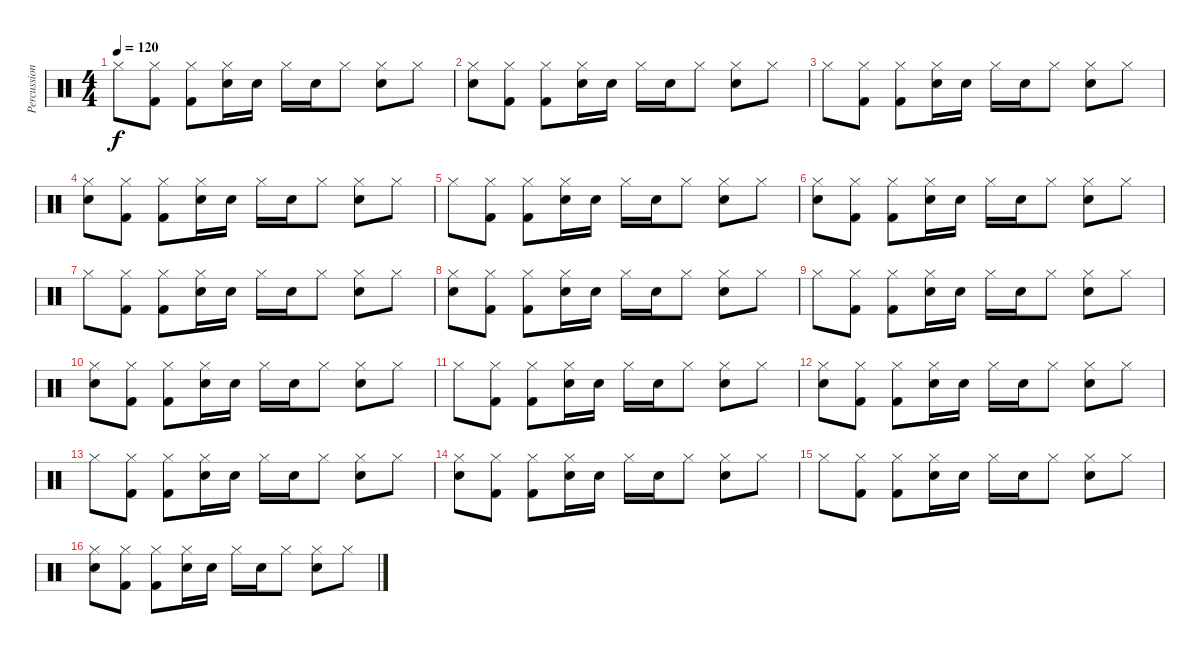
\track ("Percussion" "Percussion") {instrument percussion}
\staff {score}
\articulation defaults
\ts (4 4)
\tempo 120
\clef neutral
\ks c "Hi-Hat (closed)".8{dy f}
("Kick (hit) 2" "Hi-Hat (closed)").8 ("Kick (hit) 2" "Hi-Hat (closed)").8 ("Electric Snare (hit)" "Hi-Hat (closed)").16 "Electric Snare (hit)".16 "Hi-Hat (closed)".16 "Electric Snare (hit)".16 "Hi-Hat (closed)".8 ("Electric Snare (hit)" "Hi-Hat (closed)").8 "Hi-Hat (closed)".8 |
("Electric Snare (hit)" "Hi-Hat (closed)").8 ("Kick (hit) 2" "Hi-Hat (closed)").8 ("Kick (hit) 2" "Hi-Hat (closed)").8 ("Electric Snare (hit)" "Hi-Hat (closed)").16 "Electric Snare (hit)".16 "Hi-Hat (closed)".16 "Electric Snare (hit)".16 "Hi-Hat (closed)".8 ("Electric Snare (hit)" "Hi-Hat (closed)").8 "Hi-Hat (closed)".8 |
"Hi-Hat (closed)".8 ("Kick (hit) 2" "Hi-Hat (closed)").8 ("Kick (hit) 2" "Hi-Hat (closed)").8 ("Electric Snare (hit)" "Hi-Hat (closed)").16 "Electric Snare (hit)".16 "Hi-Hat (closed)".16 "Electric Snare (hit)".16 "Hi-Hat (closed)".8 ("Electric Snare (hit)" "Hi-Hat (closed)").8 "Hi-Hat (closed)".8 |
("Electric Snare (hit)" "Hi-Hat (closed)").8 ("Kick (hit) 2" "Hi-Hat (closed)").8 ("Kick (hit) 2" "Hi-Hat (closed)").8 ("Electric Snare (hit)" "Hi-Hat (closed)").16 "Electric Snare (hit)".16 "Hi-Hat (closed)".16 "Electric Snare (hit)".16 "Hi-Hat (closed)".8 ("Electric Snare (hit)" "Hi-Hat (closed)").8 "Hi-Hat (closed)".8 |
"Hi-Hat (closed)".8 ("Kick (hit) 2" "Hi-Hat (closed)").8 ("Kick (hit) 2" "Hi-Hat (closed)").8 ("Electric Snare (hit)" "Hi-Hat (closed)").16 "Electric Snare (hit)".16 "Hi-Hat (closed)".16 "Electric Snare (hit)".16 "Hi-Hat (closed)".8 ("Electric Snare (hit)" "Hi-Hat (closed)").8 "Hi-Hat (closed)".8 |
("Electric Snare (hit)" "Hi-Hat (closed)").8 ("Kick (hit) 2" "Hi-Hat (closed)").8 ("Kick (hit) 2" "Hi-Hat (closed)").8 ("Electric Snare (hit)" "Hi-Hat (closed)").16 "Electric Snare (hit)".16 "Hi-Hat (closed)".16 "Electric Snare (hit)".16 "Hi-Hat (closed)".8 ("Electric Snare (hit)" "Hi-Hat (closed)").8 "Hi-Hat (closed)".8 |
"Hi-Hat (closed)".8 ("Kick (hit) 2" "Hi-Hat (closed)").8 ("Kick (hit) 2" "Hi-Hat (closed)").8 ("Electric Snare (hit)" "Hi-Hat (closed)").16 "Electric Snare (hit)".16 "Hi-Hat (closed)".16 "Electric Snare (hit)".16 "Hi-Hat (closed)".8 ("Electric Snare (hit)" "Hi-Hat (closed)").8 "Hi-Hat (closed)".8 |
("Electric Snare (hit)" "Hi-Hat (closed)").8 ("Kick (hit) 2" "Hi-Hat (closed)").8 ("Kick (hit) 2" "Hi-Hat (closed)").8 ("Electric Snare (hit)" "Hi-Hat (closed)").16 "Electric Snare (hit)".16 "Hi-Hat (closed)".16 "Electric Snare (hit)".16 "Hi-Hat (closed)".8 ("Electric Snare (hit)" "Hi-Hat (closed)").8 "Hi-Hat (closed)".8 |
"Hi-Hat (closed)".8 ("Kick (hit) 2" "Hi-Hat (closed)").8 ("Kick (hit) 2" "Hi-Hat (closed)").8 ("Electric Snare (hit)" "Hi-Hat (closed)").16 "Electric Snare (hit)".16 "Hi-Hat (closed)".16 "Electric Snare (hit)".16 "Hi-Hat (closed)".8 ("Electric Snare (hit)" "Hi-Hat (closed)").8 "Hi-Hat (closed)".8 |
("Electric Snare (hit)" "Hi-Hat (closed)").8 ("Kick (hit) 2" "Hi-Hat (closed)").8 ("Kick (hit) 2" "Hi-Hat (closed)").8 ("Electric Snare (hit)" "Hi-Hat (closed)").16 "Electric Snare (hit)".16 "Hi-Hat (closed)".16 "Electric Snare (hit)".16 "Hi-Hat (closed)".8 ("Electric Snare (hit)" "Hi-Hat (closed)").8 "Hi-Hat (closed)".8 |
"Hi-Hat (closed)".8 ("Kick (hit) 2" "Hi-Hat (closed)").8 ("Kick (hit) 2" "Hi-Hat (closed)").8 ("Electric Snare (hit)" "Hi-Hat (closed)").16 "Electric Snare (hit)".16 "Hi-Hat (closed)".16 "Electric Snare (hit)".16 "Hi-Hat (closed)".8 ("Electric Snare (hit)" "Hi-Hat (closed)").8 "Hi-Hat (closed)".8 |
("Electric Snare (hit)" "Hi-Hat (closed)").8 ("Kick (hit) 2" "Hi-Hat (closed)").8 ("Kick (hit) 2" "Hi-Hat (closed)").8 ("Electric Snare (hit)" "Hi-Hat (closed)").16 "Electric Snare (hit)".16 "Hi-Hat (closed)".16 "Electric Snare (hit)".16 "Hi-Hat (closed)".8 ("Electric Snare (hit)" "Hi-Hat (closed)").8 "Hi-Hat (closed)".8 |
"Hi-Hat (closed)".8 ("Kick (hit) 2" "Hi-Hat (closed)").8 ("Kick (hit) 2" "Hi-Hat (closed)").8 ("Electric Snare (hit)" "Hi-Hat (closed)").16 "Electric Snare (hit)".16 "Hi-Hat (closed)".16 "Electric Snare (hit)".16 "Hi-Hat (closed)".8 ("Electric Snare (hit)" "Hi-Hat (closed)").8 "Hi-Hat (closed)".8 |
("Electric Snare (hit)" "Hi-Hat (closed)").8 ("Kick (hit) 2" "Hi-Hat (closed)").8 ("Kick (hit) 2" "Hi-Hat (closed)").8 ("Electric Snare (hit)" "Hi-Hat (closed)").16 "Electric Snare (hit)".16 "Hi-Hat (closed)".16 "Electric Snare (hit)".16 "Hi-Hat (closed)".8 ("Electric Snare (hit)" "Hi-Hat (closed)").8 "Hi-Hat (closed)".8 |
"Hi-Hat (closed)".8 ("Kick (hit) 2" "Hi-Hat (closed)").8 ("Kick (hit) 2" "Hi-Hat (closed)").8 ("Electric Snare (hit)" "Hi-Hat (closed)").16 "Electric Snare (hit)".16 "Hi-Hat (closed)".16 "Electric Snare (hit)".16 "Hi-Hat (closed)".8 ("Electric Snare (hit)" "Hi-Hat (closed)").8 "Hi-Hat (closed)".8 |
("Electric Snare (hit)" "Hi-Hat (closed)").8 ("Kick (hit) 2" "Hi-Hat (closed)").8 ("Kick (hit) 2" "Hi-Hat (closed)").8 ("Electric Snare (hit)" "Hi-Hat (closed)").16 "Electric Snare (hit)".16 "Hi-Hat (closed)".16 "Electric Snare (hit)".16 "Hi-Hat (closed)".8 ("Electric Snare (hit)" "Hi-Hat (closed)").8 "Hi-Hat (closed)".8
